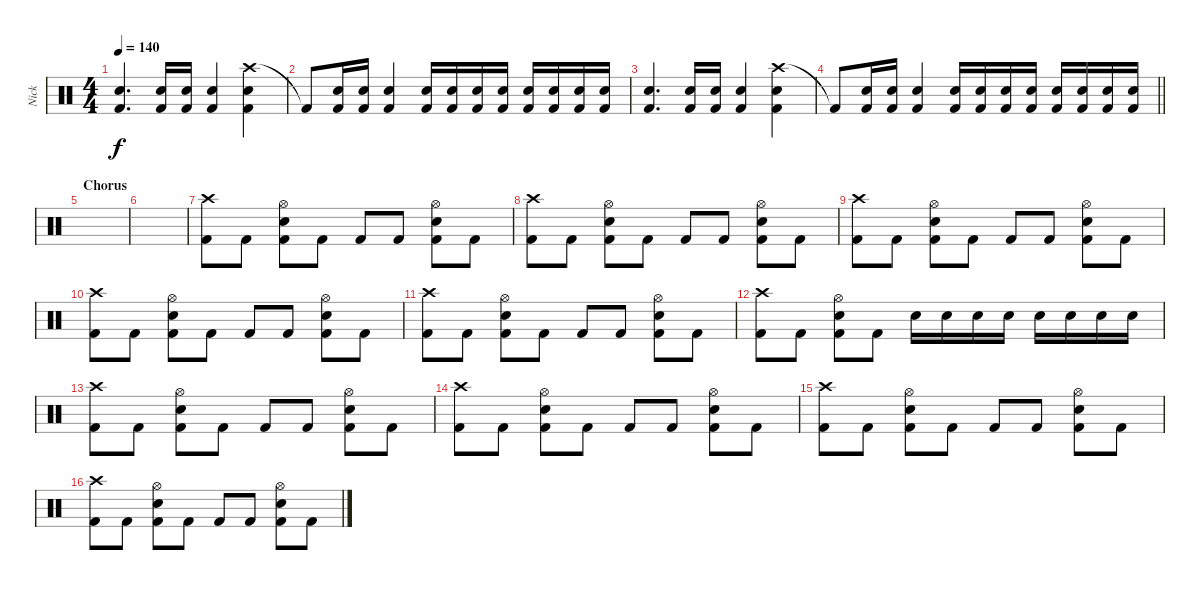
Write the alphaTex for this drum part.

\track ("Nick" "Nick") {instrument percussion}
\staff {score}
\articulation defaults
\ts (4 4)
\tempo 140
\clef neutral
\ks c
("Snare (hit) 2" "Kick (hit) 2").4{d dy f} ("Snare (hit) 2" "Kick (hit) 2").16 ("Snare (hit) 2" "Kick (hit) 2").16 ("Snare (hit) 2" "Kick (hit) 2").4 ("Crash high (hit)" "Snare (hit) 2" "Kick (hit) 2").4 |
"Kick (hit) 2"{t}.8 ("Snare (hit) 2" "Kick (hit) 2").16 ("Snare (hit) 2" "Kick (hit) 2").16 ("Snare (hit) 2" "Kick (hit) 2").4 ("Snare (hit) 2" "Kick (hit) 2").16 ("Snare (hit) 2" "Kick (hit) 2").16 ("Snare (hit) 2" "Kick (hit) 2").16 ("Snare (hit) 2" "Kick (hit) 2").16 ("Snare (hit) 2" "Kick (hit) 2").16 ("Snare (hit) 2" "Kick (hit) 2").16 ("Snare (hit) 2" "Kick (hit) 2").16 ("Snare (hit) 2" "Kick (hit) 2").16 |
("Snare (hit) 2" "Kick (hit) 2").4{d} ("Snare (hit) 2" "Kick (hit) 2").16 ("Snare (hit) 2" "Kick (hit) 2").16 ("Snare (hit) 2" "Kick (hit) 2").4 ("Crash high (hit)" "Snare (hit) 2" "Kick (hit) 2").4 |
\barLineRight lightlight "Kick (hit) 2"{t}.8
("Snare (hit) 2" "Kick (hit) 2").16 ("Snare (hit) 2" "Kick (hit) 2").16 ("Snare (hit) 2" "Kick (hit) 2").4 ("Snare (hit) 2" "Kick (hit) 2").16 ("Snare (hit) 2" "Kick (hit) 2").16 ("Snare (hit) 2" "Kick (hit) 2").16 ("Snare (hit) 2" "Kick (hit) 2").16 ("Snare (hit) 2" "Kick (hit) 2").16 ("Snare (hit) 2" "Kick (hit) 2").16 ("Snare (hit) 2" "Kick (hit) 2").16 ("Snare (hit) 2" "Kick (hit) 2").16 |
\section ("" "Chorus")
|
|
("Crash high (hit)" "Kick (hit) 2").8 "Kick (hit) 2".8 ("Hi-Hat (open)" "Snare (hit) 2" "Kick (hit) 2").8 "Kick (hit) 2".8 "Kick (hit) 2".8 "Kick (hit) 2".8 ("Hi-Hat (open)" "Snare (hit) 2" "Kick (hit) 2").8 "Kick (hit) 2".8 |
("Crash high (hit)" "Kick (hit) 2").8 "Kick (hit) 2".8 ("Hi-Hat (open)" "Snare (hit) 2" "Kick (hit) 2").8 "Kick (hit) 2".8 "Kick (hit) 2".8 "Kick (hit) 2".8 ("Hi-Hat (open)" "Snare (hit) 2" "Kick (hit) 2").8 "Kick (hit) 2".8 |
("Crash high (hit)" "Kick (hit) 2").8 "Kick (hit) 2".8 ("Hi-Hat (open)" "Snare (hit) 2" "Kick (hit) 2").8 "Kick (hit) 2".8 "Kick (hit) 2".8 "Kick (hit) 2".8 ("Hi-Hat (open)" "Snare (hit) 2" "Kick (hit) 2").8 "Kick (hit) 2".8 |
("Crash high (hit)" "Kick (hit) 2").8 "Kick (hit) 2".8 ("Hi-Hat (open)" "Snare (hit) 2" "Kick (hit) 2").8 "Kick (hit) 2".8 "Kick (hit) 2".8 "Kick (hit) 2".8 ("Hi-Hat (open)" "Snare (hit) 2" "Kick (hit) 2").8 "Kick (hit) 2".8 |
("Crash high (hit)" "Kick (hit) 2").8 "Kick (hit) 2".8 ("Hi-Hat (open)" "Snare (hit) 2" "Kick (hit) 2").8 "Kick (hit) 2".8 "Kick (hit) 2".8 "Kick (hit) 2".8 ("Hi-Hat (open)" "Snare (hit) 2" "Kick (hit) 2").8 "Kick (hit) 2".8 |
("Crash high (hit)" "Kick (hit) 2").8 "Kick (hit) 2".8 ("Hi-Hat (open)" "Snare (hit) 2" "Kick (hit) 2").8 "Kick (hit) 2".8 "Snare (hit) 2".16 "Snare (hit) 2".16 "Snare (hit) 2".16 "Snare (hit) 2".16 "Snare (hit) 2".16 "Snare (hit) 2".16 "Snare (hit) 2".16 "Snare (hit) 2".16 |
("Crash high (hit)" "Kick (hit) 2").8 "Kick (hit) 2".8 ("Hi-Hat (open)" "Snare (hit) 2" "Kick (hit) 2").8 "Kick (hit) 2".8 "Kick (hit) 2".8 "Kick (hit) 2".8 ("Hi-Hat (open)" "Snare (hit) 2" "Kick (hit) 2").8 "Kick (hit) 2".8 |
("Crash high (hit)" "Kick (hit) 2").8 "Kick (hit) 2".8 ("Hi-Hat (open)" "Snare (hit) 2" "Kick (hit) 2").8 "Kick (hit) 2".8 "Kick (hit) 2".8 "Kick (hit) 2".8 ("Hi-Hat (open)" "Snare (hit) 2" "Kick (hit) 2").8 "Kick (hit) 2".8 |
("Crash high (hit)" "Kick (hit) 2").8 "Kick (hit) 2".8 ("Hi-Hat (open)" "Snare (hit) 2" "Kick (hit) 2").8 "Kick (hit) 2".8 "Kick (hit) 2".8 "Kick (hit) 2".8 ("Hi-Hat (open)" "Snare (hit) 2" "Kick (hit) 2").8 "Kick (hit) 2".8 |
("Crash high (hit)" "Kick (hit) 2").8 "Kick (hit) 2".8 ("Hi-Hat (open)" "Snare (hit) 2" "Kick (hit) 2").8 "Kick (hit) 2".8 "Kick (hit) 2".8 "Kick (hit) 2".8 ("Hi-Hat (open)" "Snare (hit) 2" "Kick (hit) 2").8 "Kick (hit) 2".8
